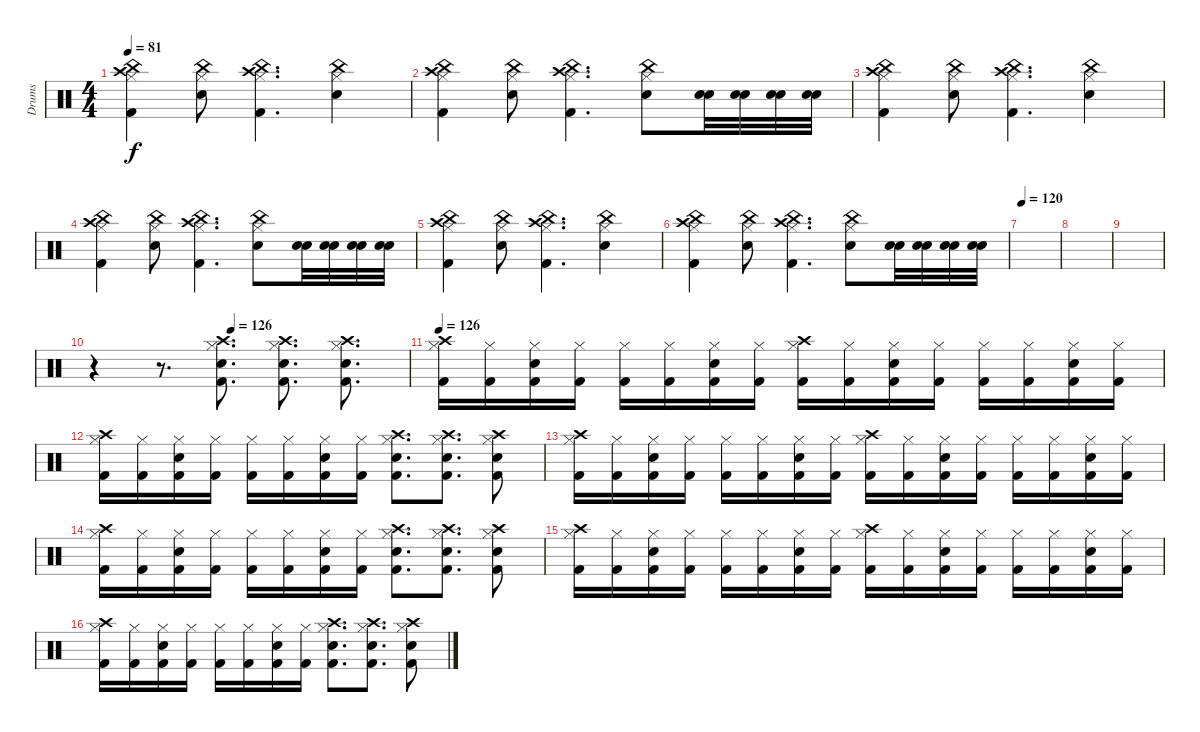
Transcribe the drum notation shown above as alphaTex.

\track ("Drums" "Drums") {instrument percussion}
\staff {score}
\articulation defaults
\ts (4 4)
\tempo 81
\clef neutral
\ks c
("Crash high (hit)" "China (hit)" "Hi-Hat (closed)" "Kick (hit) 2").4{dy f} ("China (hit)" "Hi-Hat (closed)" "Electric Snare (hit)").8 ("Crash high (hit)" "China (hit)" "Hi-Hat (closed)" "Kick (hit) 2").4{d} ("China (hit)" "Hi-Hat (closed)" "Electric Snare (hit)").4 |
("Crash high (hit)" "China (hit)" "Hi-Hat (closed)" "Kick (hit) 2").4 ("China (hit)" "Hi-Hat (closed)" "Electric Snare (hit)").8 ("Crash high (hit)" "China (hit)" "Hi-Hat (closed)" "Kick (hit) 2").4{d} ("China (hit)" "Hi-Hat (closed)" "Electric Snare (hit)").8 ("Snare (hit) 2" "Electric Snare (hit)").32 ("Snare (hit) 2" "Electric Snare (hit)").32 ("Snare (hit) 2" "Electric Snare (hit)").32 ("Snare (hit) 2" "Electric Snare (hit)").32 |
("Crash high (hit)" "China (hit)" "Hi-Hat (closed)" "Kick (hit) 2").4 ("China (hit)" "Hi-Hat (closed)" "Electric Snare (hit)").8 ("Crash high (hit)" "China (hit)" "Hi-Hat (closed)" "Kick (hit) 2").4{d} ("China (hit)" "Hi-Hat (closed)" "Electric Snare (hit)").4 |
("Crash high (hit)" "China (hit)" "Hi-Hat (closed)" "Kick (hit) 2").4 ("China (hit)" "Hi-Hat (closed)" "Electric Snare (hit)").8 ("Crash high (hit)" "China (hit)" "Hi-Hat (closed)" "Kick (hit) 2").4{d} ("China (hit)" "Hi-Hat (closed)" "Electric Snare (hit)").8 ("Snare (hit) 2" "Electric Snare (hit)").32 ("Snare (hit) 2" "Electric Snare (hit)").32 ("Snare (hit) 2" "Electric Snare (hit)").32 ("Snare (hit) 2" "Electric Snare (hit)").32 |
("Crash high (hit)" "China (hit)" "Hi-Hat (closed)" "Kick (hit) 2").4 ("China (hit)" "Hi-Hat (closed)" "Electric Snare (hit)").8 ("Crash high (hit)" "China (hit)" "Hi-Hat (closed)" "Kick (hit) 2").4{d} ("China (hit)" "Hi-Hat (closed)" "Electric Snare (hit)").4 |
("Crash high (hit)" "China (hit)" "Hi-Hat (closed)" "Kick (hit) 2").4 ("China (hit)" "Hi-Hat (closed)" "Electric Snare (hit)").8 ("Crash high (hit)" "China (hit)" "Hi-Hat (closed)" "Kick (hit) 2").4{d} ("China (hit)" "Hi-Hat (closed)" "Electric Snare (hit)").8 ("Snare (hit) 2" "Electric Snare (hit)").32 ("Snare (hit) 2" "Electric Snare (hit)").32 ("Snare (hit) 2" "Electric Snare (hit)").32 ("Snare (hit) 2" "Electric Snare (hit)").32 |
\tempo 120
|
|
|
\tempo (126 0.4375)
r.4 r.8{d} ("Crash high (hit)" "Hi-Hat (closed)" "Electric Snare (hit)" "Kick (hit) 2").8{d} ("Crash high (hit)" "Hi-Hat (closed)" "Electric Snare (hit)" "Kick (hit) 2").8{d} ("Crash high (hit)" "Hi-Hat (closed)" "Electric Snare (hit)" "Kick (hit) 2").8{d} |
\tempo 126
("Crash high (hit)" "Hi-Hat (closed)" "Kick (hit) 2").16 ("Hi-Hat (closed)" "Kick (hit) 2").16 ("Hi-Hat (closed)" "Kick (hit) 2" "Electric Snare (hit)").16 ("Hi-Hat (closed)" "Kick (hit) 2").16 ("Hi-Hat (closed)" "Kick (hit) 2").16 ("Hi-Hat (closed)" "Kick (hit) 2").16 ("Hi-Hat (closed)" "Kick (hit) 2" "Electric Snare (hit)").16 ("Hi-Hat (closed)" "Kick (hit) 2").16 ("Crash high (hit)" "Hi-Hat (closed)" "Kick (hit) 2").16 ("Hi-Hat (closed)" "Kick (hit) 2").16 ("Hi-Hat (closed)" "Kick (hit) 2" "Electric Snare (hit)").16 ("Hi-Hat (closed)" "Kick (hit) 2").16 ("Hi-Hat (closed)" "Kick (hit) 2").16 ("Hi-Hat (closed)" "Kick (hit) 2").16 ("Hi-Hat (closed)" "Kick (hit) 2" "Electric Snare (hit)").16 ("Hi-Hat (closed)" "Kick (hit) 2").16 |
("Crash high (hit)" "Hi-Hat (closed)" "Kick (hit) 2").16 ("Hi-Hat (closed)" "Kick (hit) 2").16 ("Hi-Hat (closed)" "Kick (hit) 2" "Electric Snare (hit)").16 ("Hi-Hat (closed)" "Kick (hit) 2").16 ("Hi-Hat (closed)" "Kick (hit) 2").16 ("Hi-Hat (closed)" "Kick (hit) 2").16 ("Hi-Hat (closed)" "Kick (hit) 2" "Electric Snare (hit)").16 ("Hi-Hat (closed)" "Kick (hit) 2").16 ("Crash high (hit)" "Hi-Hat (closed)" "Electric Snare (hit)" "Kick (hit) 2").8{d} ("Crash high (hit)" "Hi-Hat (closed)" "Electric Snare (hit)" "Kick (hit) 2").8{d} ("Crash high (hit)" "Hi-Hat (closed)" "Electric Snare (hit)" "Kick (hit) 2").8 |
("Crash high (hit)" "Hi-Hat (closed)" "Kick (hit) 2").16 ("Hi-Hat (closed)" "Kick (hit) 2").16 ("Hi-Hat (closed)" "Kick (hit) 2" "Electric Snare (hit)").16 ("Hi-Hat (closed)" "Kick (hit) 2").16 ("Hi-Hat (closed)" "Kick (hit) 2").16 ("Hi-Hat (closed)" "Kick (hit) 2").16 ("Hi-Hat (closed)" "Kick (hit) 2" "Electric Snare (hit)").16 ("Hi-Hat (closed)" "Kick (hit) 2").16 ("Crash high (hit)" "Hi-Hat (closed)" "Kick (hit) 2").16 ("Hi-Hat (closed)" "Kick (hit) 2").16 ("Hi-Hat (closed)" "Kick (hit) 2" "Electric Snare (hit)").16 ("Hi-Hat (closed)" "Kick (hit) 2").16 ("Hi-Hat (closed)" "Kick (hit) 2").16 ("Hi-Hat (closed)" "Kick (hit) 2").16 ("Hi-Hat (closed)" "Kick (hit) 2" "Electric Snare (hit)").16 ("Hi-Hat (closed)" "Kick (hit) 2").16 |
("Crash high (hit)" "Hi-Hat (closed)" "Kick (hit) 2").16 ("Hi-Hat (closed)" "Kick (hit) 2").16 ("Hi-Hat (closed)" "Kick (hit) 2" "Electric Snare (hit)").16 ("Hi-Hat (closed)" "Kick (hit) 2").16 ("Hi-Hat (closed)" "Kick (hit) 2").16 ("Hi-Hat (closed)" "Kick (hit) 2").16 ("Hi-Hat (closed)" "Kick (hit) 2" "Electric Snare (hit)").16 ("Hi-Hat (closed)" "Kick (hit) 2").16 ("Crash high (hit)" "Hi-Hat (closed)" "Electric Snare (hit)" "Kick (hit) 2").8{d} ("Crash high (hit)" "Hi-Hat (closed)" "Electric Snare (hit)" "Kick (hit) 2").8{d} ("Crash high (hit)" "Hi-Hat (closed)" "Electric Snare (hit)" "Kick (hit) 2").8 |
("Crash high (hit)" "Hi-Hat (closed)" "Kick (hit) 2").16 ("Hi-Hat (closed)" "Kick (hit) 2").16 ("Hi-Hat (closed)" "Kick (hit) 2" "Electric Snare (hit)").16 ("Hi-Hat (closed)" "Kick (hit) 2").16 ("Hi-Hat (closed)" "Kick (hit) 2").16 ("Hi-Hat (closed)" "Kick (hit) 2").16 ("Hi-Hat (closed)" "Kick (hit) 2" "Electric Snare (hit)").16 ("Hi-Hat (closed)" "Kick (hit) 2").16 ("Crash high (hit)" "Hi-Hat (closed)" "Kick (hit) 2").16 ("Hi-Hat (closed)" "Kick (hit) 2").16 ("Hi-Hat (closed)" "Kick (hit) 2" "Electric Snare (hit)").16 ("Hi-Hat (closed)" "Kick (hit) 2").16 ("Hi-Hat (closed)" "Kick (hit) 2").16 ("Hi-Hat (closed)" "Kick (hit) 2").16 ("Hi-Hat (closed)" "Kick (hit) 2" "Electric Snare (hit)").16 ("Hi-Hat (closed)" "Kick (hit) 2").16 |
("Crash high (hit)" "Hi-Hat (closed)" "Kick (hit) 2").16 ("Hi-Hat (closed)" "Kick (hit) 2").16 ("Hi-Hat (closed)" "Kick (hit) 2" "Electric Snare (hit)").16 ("Hi-Hat (closed)" "Kick (hit) 2").16 ("Hi-Hat (closed)" "Kick (hit) 2").16 ("Hi-Hat (closed)" "Kick (hit) 2").16 ("Hi-Hat (closed)" "Kick (hit) 2" "Electric Snare (hit)").16 ("Hi-Hat (closed)" "Kick (hit) 2").16 ("Crash high (hit)" "Hi-Hat (closed)" "Electric Snare (hit)" "Kick (hit) 2").8{d} ("Crash high (hit)" "Hi-Hat (closed)" "Electric Snare (hit)" "Kick (hit) 2").8{d} ("Crash high (hit)" "Hi-Hat (closed)" "Electric Snare (hit)" "Kick (hit) 2").8
